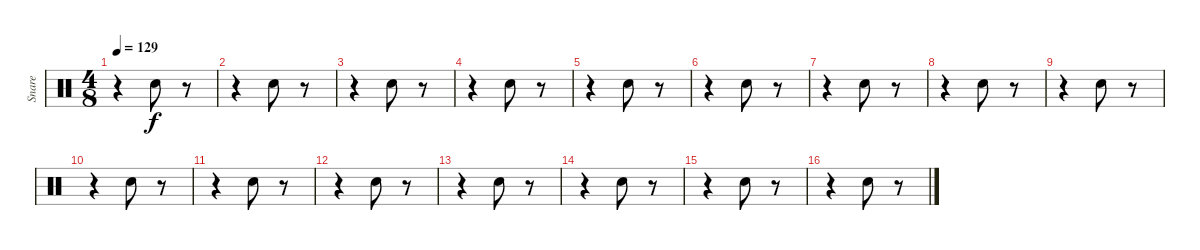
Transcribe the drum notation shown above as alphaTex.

\track ("Snare" "Snare") {instrument percussion}
\staff {score}
\articulation defaults
\ts (4 8)
\tempo 129
\clef neutral
\ks c
r.4{dy f} "Snare (hit) 2".8 r.8 |
r.4 "Snare (hit) 2".8 r.8 |
r.4 "Snare (hit) 2".8 r.8 |
r.4 "Snare (hit) 2".8 r.8 |
r.4 "Snare (hit) 2".8 r.8 |
r.4 "Snare (hit) 2".8 r.8 |
r.4 "Snare (hit) 2".8 r.8 |
r.4 "Snare (hit) 2".8 r.8 |
r.4 "Snare (hit) 2".8 r.8 |
r.4 "Snare (hit) 2".8 r.8 |
r.4 "Snare (hit) 2".8 r.8 |
r.4 "Snare (hit) 2".8 r.8 |
r.4 "Snare (hit) 2".8 r.8 |
r.4 "Snare (hit) 2".8 r.8 |
r.4 "Snare (hit) 2".8 r.8 |
r.4 "Snare (hit) 2".8 r.8
